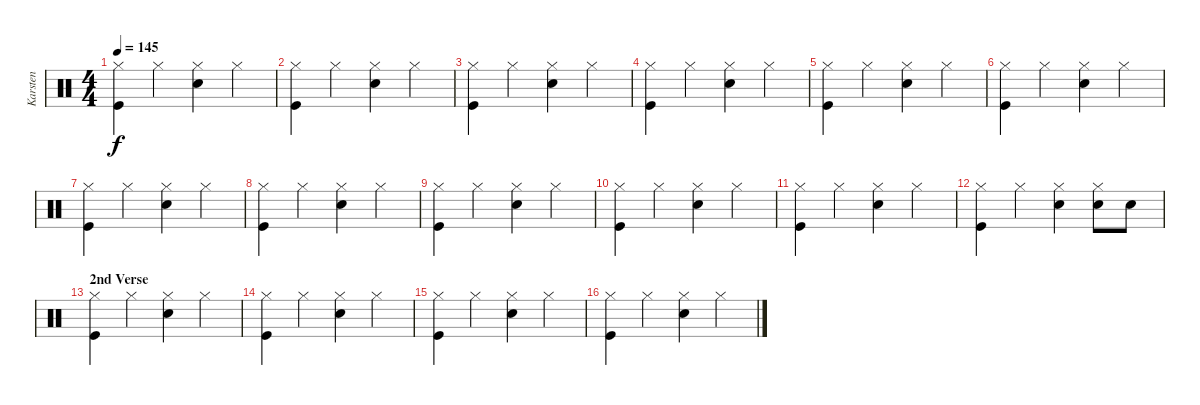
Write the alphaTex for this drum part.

\track ("Karsten" "Karsten") {instrument percussion}
\staff {score}
\articulation defaults
\ts (4 4)
\tempo 145
\clef neutral
\ks c
("Hi-Hat (closed)" "Kick (hit)").4{dy f} "Hi-Hat (closed)".4 ("Hi-Hat (closed)" "Snare (hit) 2").4 "Hi-Hat (closed)".4 |
("Hi-Hat (closed)" "Kick (hit)").4 "Hi-Hat (closed)".4 ("Hi-Hat (closed)" "Snare (hit) 2").4 "Hi-Hat (closed)".4 |
("Hi-Hat (closed)" "Kick (hit)").4 "Hi-Hat (closed)".4 ("Hi-Hat (closed)" "Snare (hit) 2").4 "Hi-Hat (closed)".4 |
("Hi-Hat (closed)" "Kick (hit)").4 "Hi-Hat (closed)".4 ("Hi-Hat (closed)" "Snare (hit) 2").4 "Hi-Hat (closed)".4 |
("Hi-Hat (closed)" "Kick (hit)").4 "Hi-Hat (closed)".4 ("Hi-Hat (closed)" "Snare (hit) 2").4 "Hi-Hat (closed)".4 |
("Hi-Hat (closed)" "Kick (hit)").4 "Hi-Hat (closed)".4 ("Hi-Hat (closed)" "Snare (hit) 2").4 "Hi-Hat (closed)".4 |
("Hi-Hat (closed)" "Kick (hit)").4 "Hi-Hat (closed)".4 ("Hi-Hat (closed)" "Snare (hit) 2").4 "Hi-Hat (closed)".4 |
("Hi-Hat (closed)" "Kick (hit)").4 "Hi-Hat (closed)".4 ("Hi-Hat (closed)" "Snare (hit) 2").4 "Hi-Hat (closed)".4 |
("Hi-Hat (closed)" "Kick (hit)").4 "Hi-Hat (closed)".4 ("Hi-Hat (closed)" "Snare (hit) 2").4 "Hi-Hat (closed)".4 |
("Hi-Hat (closed)" "Kick (hit)").4 "Hi-Hat (closed)".4 ("Hi-Hat (closed)" "Snare (hit) 2").4 "Hi-Hat (closed)".4 |
("Hi-Hat (closed)" "Kick (hit)").4 "Hi-Hat (closed)".4 ("Hi-Hat (closed)" "Snare (hit) 2").4 "Hi-Hat (closed)".4 |
("Hi-Hat (closed)" "Kick (hit)").4 "Hi-Hat (closed)".4 ("Hi-Hat (closed)" "Snare (hit) 2").4 ("Hi-Hat (closed)" "Snare (hit) 2").8 "Snare (hit) 2".8 |
\section ("" "2nd Verse")
("Hi-Hat (closed)" "Kick (hit)").4 "Hi-Hat (closed)".4 ("Hi-Hat (closed)" "Snare (hit) 2").4 "Hi-Hat (closed)".4 |
("Hi-Hat (closed)" "Kick (hit)").4 "Hi-Hat (closed)".4 ("Hi-Hat (closed)" "Snare (hit) 2").4 "Hi-Hat (closed)".4 |
("Hi-Hat (closed)" "Kick (hit)").4 "Hi-Hat (closed)".4 ("Hi-Hat (closed)" "Snare (hit) 2").4 "Hi-Hat (closed)".4 |
("Hi-Hat (closed)" "Kick (hit)").4 "Hi-Hat (closed)".4 ("Hi-Hat (closed)" "Snare (hit) 2").4 "Hi-Hat (closed)".4
